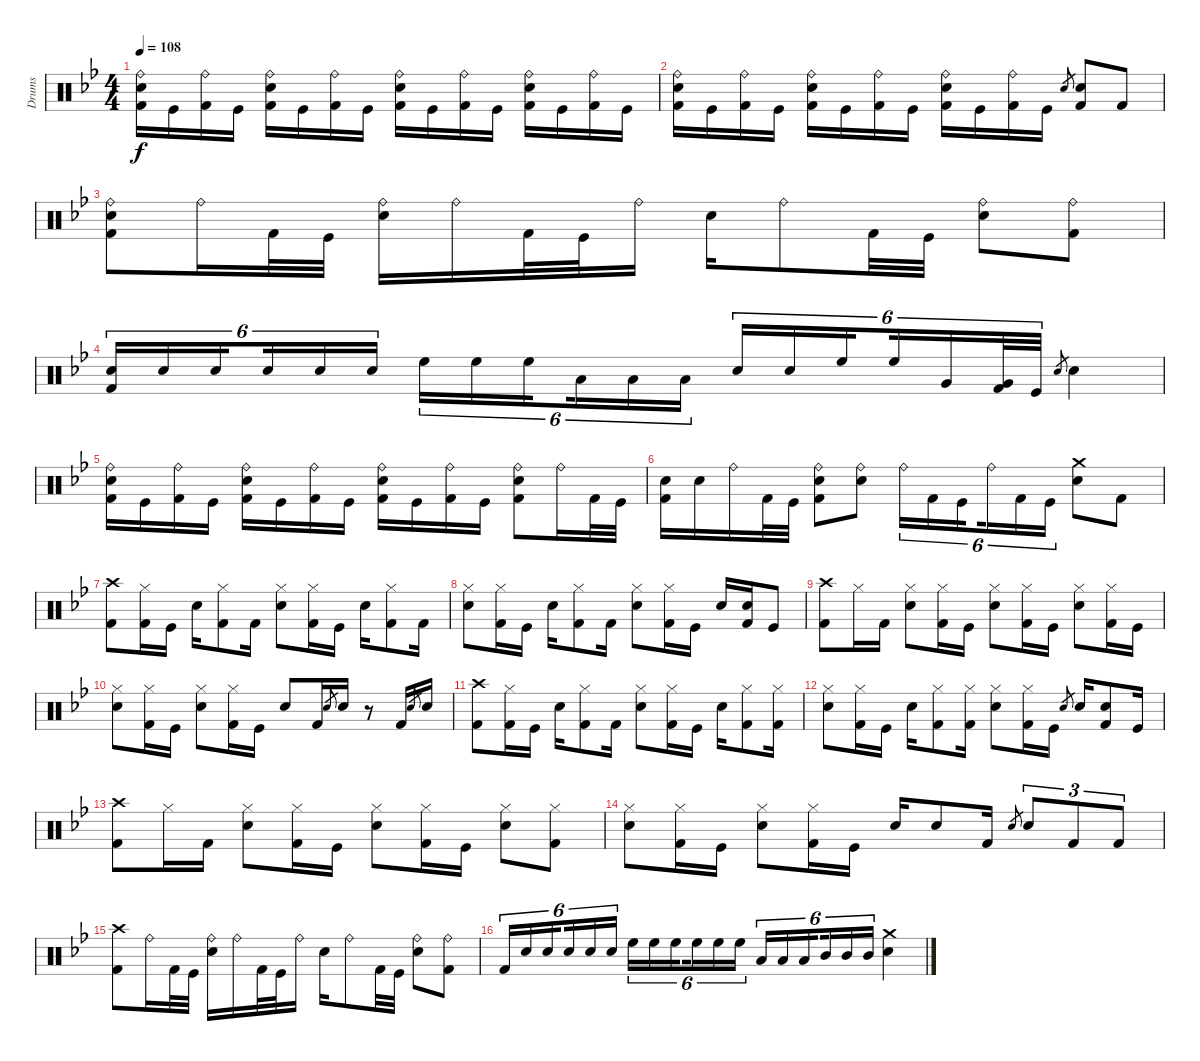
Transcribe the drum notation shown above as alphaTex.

\track ("Drums" "Drums") {instrument percussion}
\staff {score}
\articulation defaults
\ts (4 4)
\tempo 108
\clef neutral
\ks bb
("Ride (bell)" "Electric Snare (hit)" "Kick (hit) 2").16{dy f} "Kick (hit)".16 ("Ride (bell)" "Kick (hit) 2").16 "Kick (hit)".16 ("Ride (bell)" "Electric Snare (hit)" "Kick (hit) 2").16 "Kick (hit)".16 ("Ride (bell)" "Kick (hit) 2").16 "Kick (hit)".16 ("Ride (bell)" "Electric Snare (hit)" "Kick (hit) 2").16 "Kick (hit)".16 ("Ride (bell)" "Kick (hit) 2").16 "Kick (hit)".16 ("Ride (bell)" "Electric Snare (hit)" "Kick (hit) 2").16 "Kick (hit)".16 ("Ride (bell)" "Kick (hit) 2").16 "Kick (hit)".16 |
("Ride (bell)" "Electric Snare (hit)" "Kick (hit) 2").16 "Kick (hit)".16 ("Ride (bell)" "Kick (hit) 2").16 "Kick (hit)".16 ("Ride (bell)" "Electric Snare (hit)" "Kick (hit) 2").16 "Kick (hit)".16 ("Ride (bell)" "Kick (hit) 2").16 "Kick (hit)".16 ("Ride (bell)" "Electric Snare (hit)" "Kick (hit) 2").16 "Kick (hit)".16 ("Ride (bell)" "Kick (hit) 2").16 "Kick (hit)".16 "Electric Snare (hit)".8{gr} ("Electric Snare (hit)" "Kick (hit) 2").8 "Kick (hit) 2".8 |
("Ride (bell)" "Electric Snare (hit)" "Kick (hit) 2").8 "Ride (bell)".16 "Kick (hit) 2".32 "Kick (hit)".32 ("Ride (bell)" "Electric Snare (hit)").16 "Ride (bell)".16 "Kick (hit) 2".32 "Kick (hit)".32 "Ride (bell)".16 "Electric Snare (hit)".16 "Ride (bell)".8 "Kick (hit) 2".32 "Kick (hit)".32 ("Ride (bell)" "Electric Snare (hit)").8 ("Ride (bell)" "Kick (hit) 2").8 |
("Electric Snare (hit)" "Kick (hit) 2").16{tu (6 4)} "Electric Snare (hit)".16{tu (6 4)} "Electric Snare (hit)".16{tu (6 4) beam splitsecondary} "Electric Snare (hit)".16{tu (6 4)} "Electric Snare (hit)".16{tu (6 4)} "Electric Snare (hit)".16{tu (6 4)} "High Floor Tom (hit)".16{tu (6 4)} "High Floor Tom (hit)".16{tu (6 4)} "High Floor Tom (hit)".16{tu (6 4) beam splitsecondary} "Low Tom (hit)".16{tu (6 4)} "Low Tom (hit)".16{tu (6 4)} "Low Tom (hit)".16{tu (6 4)} "Electric Snare (hit)".16{tu (6 4)} "Electric Snare (hit)".16{tu (6 4)} "High Floor Tom (hit)".16{tu (6 4) beam splitsecondary} "High Floor Tom (hit)".16{tu (6 4)} "Very Low Tom (hit)".16{tu (6 4)} ("Very Low Tom (hit)" "Kick (hit) 2").32{tu (6 4)} "Kick (hit)".32{tu (6 4)} "Electric Snare (hit)".8{gr} "Electric Snare (hit)".4 |
("Ride (bell)" "Electric Snare (hit)" "Kick (hit) 2").16 "Kick (hit)".16 ("Ride (bell)" "Kick (hit) 2").16 "Kick (hit)".16 ("Ride (bell)" "Electric Snare (hit)" "Kick (hit) 2").16 "Kick (hit)".16 ("Ride (bell)" "Kick (hit) 2").16 "Kick (hit)".16 ("Ride (bell)" "Electric Snare (hit)" "Kick (hit) 2").16 "Kick (hit)".16 ("Ride (bell)" "Kick (hit) 2").16 "Kick (hit)".16 ("Ride (bell)" "Electric Snare (hit)" "Kick (hit) 2").8 "Ride (bell)".16 "Kick (hit) 2".32 "Kick (hit)".32 |
("Electric Snare (hit)" "Kick (hit) 2").16 "Electric Snare (hit)".16 "Ride (bell)".16 "Kick (hit) 2".32 "Kick (hit)".32 ("Ride (bell)" "Electric Snare (hit)" "Kick (hit) 2").8 ("Ride (bell)" "Electric Snare (hit)").8 "Ride (bell)".16{tu (6 4)} "Kick (hit) 2".16{tu (6 4)} "Kick (hit)".16{tu (6 4) beam splitsecondary} "Ride (bell)".16{tu (6 4)} "Kick (hit) 2".16{tu (6 4)} "Kick (hit)".16{tu (6 4)} ("Crash medium (hit)" "Electric Snare (hit)").8 "Kick (hit) 2".8 |
("Crash high (hit)" "Kick (hit) 2").8 ("Hi-Hat (closed)" "Kick (hit) 2").16 "Kick (hit)".16 "Electric Snare (hit)".16 ("Hi-Hat (closed)" "Kick (hit) 2").8 "Kick (hit) 2".16 ("Hi-Hat (closed)" "Electric Snare (hit)").8 ("Hi-Hat (closed)" "Kick (hit) 2").16 "Kick (hit)".16 "Electric Snare (hit)".16 ("Hi-Hat (closed)" "Kick (hit) 2").8 "Kick (hit) 2".16 |
("Hi-Hat (closed)" "Electric Snare (hit)").8 ("Hi-Hat (closed)" "Kick (hit) 2").16 "Kick (hit)".16 "Electric Snare (hit)".16 ("Hi-Hat (closed)" "Kick (hit) 2").8 "Kick (hit) 2".16 ("Hi-Hat (closed)" "Electric Snare (hit)").8 ("Hi-Hat (closed)" "Kick (hit) 2").16 "Kick (hit)".16 "Electric Snare (hit)".16 ("Electric Snare (hit)" "Kick (hit) 2").16 "Kick (hit)".8 |
("Crash high (hit)" "Kick (hit) 2").8 "Hi-Hat (closed)".16 "Kick (hit) 2".16 ("Hi-Hat (closed)" "Electric Snare (hit)").8 ("Hi-Hat (closed)" "Kick (hit) 2").16 "Kick (hit)".16 ("Hi-Hat (closed)" "Electric Snare (hit)").8 ("Hi-Hat (closed)" "Kick (hit) 2").16 "Kick (hit)".16 ("Hi-Hat (closed)" "Electric Snare (hit)").8 ("Hi-Hat (closed)" "Kick (hit) 2").16 "Kick (hit)".16 |
("Hi-Hat (closed)" "Electric Snare (hit)").8 ("Hi-Hat (closed)" "Kick (hit) 2").16 "Kick (hit)".16 ("Hi-Hat (closed)" "Electric Snare (hit)").8 ("Hi-Hat (closed)" "Kick (hit) 2").16 "Kick (hit)".16 "Electric Snare (hit)".8 "Kick (hit) 2".16 "Electric Snare (hit)".8{gr} "Electric Snare (hit)".16 r.8 "Kick (hit) 2".16 "Electric Snare (hit)".8{gr} "Electric Snare (hit)".16 |
("Crash high (hit)" "Kick (hit) 2").8 ("Hi-Hat (closed)" "Kick (hit) 2").16 "Kick (hit)".16 "Electric Snare (hit)".16 ("Hi-Hat (closed)" "Kick (hit) 2").8 "Kick (hit) 2".16 ("Hi-Hat (closed)" "Electric Snare (hit)").8 ("Hi-Hat (closed)" "Kick (hit) 2").16 "Kick (hit)".16 "Electric Snare (hit)".16 ("Hi-Hat (closed)" "Kick (hit) 2").8 ("Hi-Hat (closed)" "Kick (hit) 2").16 |
("Hi-Hat (closed)" "Electric Snare (hit)").8 ("Hi-Hat (closed)" "Kick (hit) 2").16 "Kick (hit)".16 "Electric Snare (hit)".16 ("Hi-Hat (closed)" "Kick (hit) 2").8 ("Hi-Hat (closed)" "Kick (hit) 2").16 ("Hi-Hat (closed)" "Electric Snare (hit)").8 ("Hi-Hat (closed)" "Kick (hit) 2").16 "Kick (hit)".16 "Electric Snare (hit)".8{gr} "Electric Snare (hit)".16 ("Electric Snare (hit)" "Kick (hit) 2").8 "Kick (hit)".16 |
("Crash high (hit)" "Kick (hit) 2").8 "Hi-Hat (closed)".16 "Kick (hit) 2".16 ("Hi-Hat (closed)" "Electric Snare (hit)").8 ("Hi-Hat (closed)" "Kick (hit) 2").16 "Kick (hit)".16 ("Hi-Hat (closed)" "Electric Snare (hit)").8 ("Hi-Hat (closed)" "Kick (hit) 2").16 "Kick (hit)".16 ("Hi-Hat (closed)" "Electric Snare (hit)").8 ("Hi-Hat (closed)" "Kick (hit) 2").8 |
("Hi-Hat (closed)" "Electric Snare (hit)").8 ("Hi-Hat (closed)" "Kick (hit) 2").16 "Kick (hit)".16 ("Hi-Hat (closed)" "Electric Snare (hit)").8 ("Hi-Hat (closed)" "Kick (hit) 2").16 "Kick (hit)".16 "Electric Snare (hit)".16 "Electric Snare (hit)".8 "Kick (hit) 2".16 "Electric Snare (hit)".8{gr} "Electric Snare (hit)".8{tu (3 2)} "Kick (hit) 2".8{tu (3 2)} "Kick (hit) 2".8{tu (3 2)} |
("Crash high (hit)" "Kick (hit) 2").8 "Ride (bell)".16 "Kick (hit) 2".32 "Kick (hit)".32 ("Ride (bell)" "Electric Snare (hit)").16 "Ride (bell)".16 "Kick (hit) 2".32 "Kick (hit)".32 "Ride (bell)".16 "Electric Snare (hit)".16 "Ride (bell)".8 "Kick (hit) 2".32 "Kick (hit)".32 ("Ride (bell)" "Electric Snare (hit)").8 ("Ride (bell)" "Kick (hit) 2").8 |
"Kick (hit) 2".16{tu (6 4)} "Electric Snare (hit)".16{tu (6 4)} "Electric Snare (hit)".16{tu (6 4) beam splitsecondary} "Electric Snare (hit)".16{tu (6 4)} "Electric Snare (hit)".16{tu (6 4)} "Electric Snare (hit)".16{tu (6 4)} "High Floor Tom (hit)".16{tu (6 4)} "High Floor Tom (hit)".16{tu (6 4)} "High Floor Tom (hit)".16{tu (6 4) beam splitsecondary} "High Floor Tom (hit)".16{tu (6 4)} "High Floor Tom (hit)".16{tu (6 4)} "High Floor Tom (hit)".16{tu (6 4)} "Low Tom (hit)".16{tu (6 4)} "Low Tom (hit)".16{tu (6 4)} "Low Tom (hit)".16{tu (6 4) beam splitsecondary} "Mid Tom (hit)".16{tu (6 4)} "Mid Tom (hit)".16{tu (6 4)} "Mid Tom (hit)".16{tu (6 4)} ("Crash medium (hit)" "Electric Snare (hit)").4
